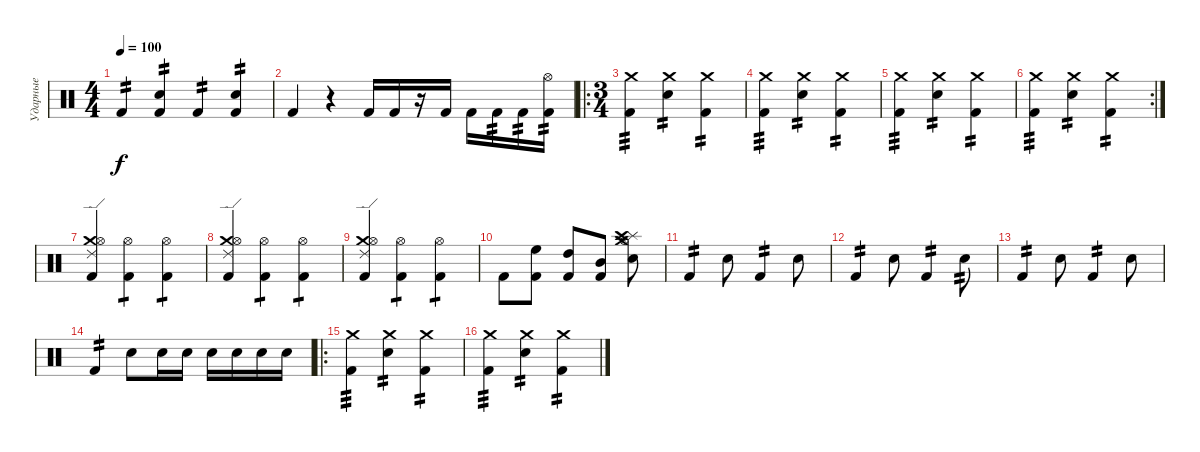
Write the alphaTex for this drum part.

\track ("Ударные" "Ударные") {instrument percussion}
\staff {score}
\articulation defaults
\ts (4 4)
\tempo 100
\clef neutral
\ks c "Kick (hit) 2".4{tp 2 dy f}
("Kick (hit) 2" "Snare (hit) 2").4{tp 2} "Kick (hit) 2".4{tp 2} ("Kick (hit) 2" "Snare (hit) 2").4{tp 2} |
"Kick (hit) 2".4 r.4 "Kick (hit) 2".16 "Kick (hit) 2".16 r.16 "Kick (hit) 2".16 "Kick (hit) 2".16 "Kick (hit) 2".16{tp 2} "Kick (hit) 2".16{tp 2} ("Hi-Hat (open)" "Kick (hit) 2").16{tp 2} |
\ro
\ts (3 4)
("Kick (hit) 2" "Crash medium (hit)").4{tp 3} ("Snare (hit) 2" "Crash medium (hit)").4{tp 2} ("Kick (hit) 2" "Crash medium (hit)").4{tp 2} |
("Kick (hit) 2" "Crash medium (hit)").4{tp 3} ("Snare (hit) 2" "Crash medium (hit)").4{tp 2} ("Kick (hit) 2" "Crash medium (hit)").4{tp 2} |
("Kick (hit) 2" "Crash medium (hit)").4{tp 3} ("Snare (hit) 2" "Crash medium (hit)").4{tp 2} ("Kick (hit) 2" "Crash medium (hit)").4{tp 2} |
\rc 2
("Kick (hit) 2" "Crash medium (hit)").4{tp 3} ("Snare (hit) 2" "Crash medium (hit)").4{tp 2} ("Kick (hit) 2" "Crash medium (hit)").4{tp 2} |
("Crash medium (hit)" "Hi-Hat (open)" "Kick (hit) 2" "Ride (edge) 2").4 ("Kick (hit) 2" "Hi-Hat (open)").4{tp 1} ("Kick (hit) 2" "Hi-Hat (open)").4{tp 1} |
("Crash medium (hit)" "Hi-Hat (open)" "Kick (hit) 2" "Ride (edge) 2").4 ("Kick (hit) 2" "Hi-Hat (open)").4{tp 1} ("Kick (hit) 2" "Hi-Hat (open)").4{tp 1} |
("Crash medium (hit)" "Hi-Hat (open)" "Kick (hit) 2" "Ride (edge) 2").4 ("Kick (hit) 2" "Hi-Hat (open)").4{tp 1} ("Kick (hit) 2" "Hi-Hat (open)").4{tp 1} |
"Kick (hit) 2".8 ("Kick (hit) 2" "High Floor Tom (hit)").8 ("Kick (hit) 2" "High Tom (hit)").8 ("Kick (hit) 2" "Mid Tom (hit)").8 ("Crash medium (hit)" "Splash (hit)" "Hi-Hat (open)" "Crash high (hit)" "Snare (hit) 2").8 |
"Kick (hit) 2".4{tp 2} "Snare (hit) 2".8 "Kick (hit) 2".4{tp 2} "Snare (hit) 2".8 |
"Kick (hit) 2".4{tp 2} "Snare (hit) 2".8 "Kick (hit) 2".4{tp 2} "Snare (hit) 2".8{tp 2} |
"Kick (hit) 2".4{tp 2} "Snare (hit) 2".8 "Kick (hit) 2".4{tp 2} "Snare (hit) 2".8 |
"Kick (hit) 2".4{tp 2} "Snare (hit) 2".8 "Snare (hit) 2".16 "Snare (hit) 2".16 "Snare (hit) 2".16 "Snare (hit) 2".16 "Snare (hit) 2".16 "Snare (hit) 2".16 |
\ro
("Kick (hit) 2" "Crash medium (hit)").4{tp 3} ("Snare (hit) 2" "Crash medium (hit)").4{tp 2} ("Kick (hit) 2" "Crash medium (hit)").4{tp 2} |
("Kick (hit) 2" "Crash medium (hit)").4{tp 3} ("Snare (hit) 2" "Crash medium (hit)").4{tp 2} ("Kick (hit) 2" "Crash medium (hit)").4{tp 2}
